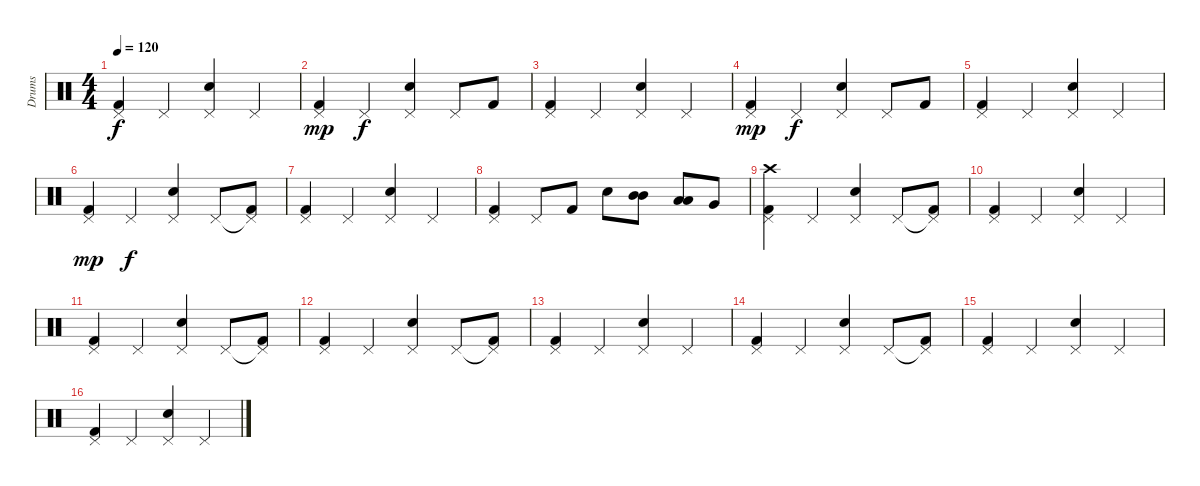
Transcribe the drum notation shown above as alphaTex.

\track ("Drums" "Drums") {instrument percussion}
\staff {score}
\articulation defaults
\ts (4 4)
\tempo 120
\clef neutral
\ks c
("Pedal Hi-Hat (hit)" "Kick (hit) 2").4{dy f} "Pedal Hi-Hat (hit)".4 ("Pedal Hi-Hat (hit)" "Snare (hit) 2").4 "Pedal Hi-Hat (hit)".4 |
("Pedal Hi-Hat (hit)" "Kick (hit) 2").4{dy mp} "Pedal Hi-Hat (hit)".4{dy f} ("Pedal Hi-Hat (hit)" "Snare (hit) 2").4 "Pedal Hi-Hat (hit)".8 "Kick (hit) 2".8 |
("Pedal Hi-Hat (hit)" "Kick (hit) 2").4 "Pedal Hi-Hat (hit)".4 ("Pedal Hi-Hat (hit)" "Snare (hit) 2").4 "Pedal Hi-Hat (hit)".4 |
("Pedal Hi-Hat (hit)" "Kick (hit) 2").4{dy mp} "Pedal Hi-Hat (hit)".4{dy f} ("Pedal Hi-Hat (hit)" "Snare (hit) 2").4 "Pedal Hi-Hat (hit)".8 "Kick (hit) 2".8 |
("Pedal Hi-Hat (hit)" "Kick (hit) 2").4 "Pedal Hi-Hat (hit)".4 ("Pedal Hi-Hat (hit)" "Snare (hit) 2").4 "Pedal Hi-Hat (hit)".4 |
("Pedal Hi-Hat (hit)" "Kick (hit) 2").4{dy mp} "Pedal Hi-Hat (hit)".4{dy f} ("Pedal Hi-Hat (hit)" "Snare (hit) 2").4 "Pedal Hi-Hat (hit)".8 ("Pedal Hi-Hat (hit)"{t} "Kick (hit) 2").8 |
("Pedal Hi-Hat (hit)" "Kick (hit) 2").4 "Pedal Hi-Hat (hit)".4 ("Pedal Hi-Hat (hit)" "Snare (hit) 2").4 "Pedal Hi-Hat (hit)".4 |
("Pedal Hi-Hat (hit)" "Kick (hit) 2").4 "Pedal Hi-Hat (hit)".8 "Kick (hit) 2".8 "Snare (hit) 2".8 ("Mid Tom (hit)" "Mid Tom (hit)").8{bd 60} ("Low Tom (hit)" "Low Tom (hit)").8{bd 60} "Very Low Tom (hit)".8 |
("Pedal Hi-Hat (hit)" "Crash high (hit)" "Kick (hit) 2").4 "Pedal Hi-Hat (hit)".4 ("Pedal Hi-Hat (hit)" "Snare (hit) 2").4 "Pedal Hi-Hat (hit)".8 ("Pedal Hi-Hat (hit)"{t} "Kick (hit) 2").8 |
("Pedal Hi-Hat (hit)" "Kick (hit) 2").4 "Pedal Hi-Hat (hit)".4 ("Pedal Hi-Hat (hit)" "Snare (hit) 2").4 "Pedal Hi-Hat (hit)".4 |
("Pedal Hi-Hat (hit)" "Kick (hit) 2").4 "Pedal Hi-Hat (hit)".4 ("Pedal Hi-Hat (hit)" "Snare (hit) 2").4 "Pedal Hi-Hat (hit)".8 ("Pedal Hi-Hat (hit)"{t} "Kick (hit) 2").8 |
("Pedal Hi-Hat (hit)" "Kick (hit) 2").4 "Pedal Hi-Hat (hit)".4 ("Pedal Hi-Hat (hit)" "Snare (hit) 2").4 "Pedal Hi-Hat (hit)".8 ("Pedal Hi-Hat (hit)"{t} "Kick (hit) 2").8 |
("Pedal Hi-Hat (hit)" "Kick (hit) 2").4 "Pedal Hi-Hat (hit)".4 ("Pedal Hi-Hat (hit)" "Snare (hit) 2").4 "Pedal Hi-Hat (hit)".4 |
("Pedal Hi-Hat (hit)" "Kick (hit) 2").4 "Pedal Hi-Hat (hit)".4 ("Pedal Hi-Hat (hit)" "Snare (hit) 2").4 "Pedal Hi-Hat (hit)".8 ("Pedal Hi-Hat (hit)"{t} "Kick (hit) 2").8 |
("Pedal Hi-Hat (hit)" "Kick (hit) 2").4 "Pedal Hi-Hat (hit)".4 ("Pedal Hi-Hat (hit)" "Snare (hit) 2").4 "Pedal Hi-Hat (hit)".4 |
("Pedal Hi-Hat (hit)" "Kick (hit) 2").4 "Pedal Hi-Hat (hit)".4 ("Pedal Hi-Hat (hit)" "Snare (hit) 2").4 "Pedal Hi-Hat (hit)".4
